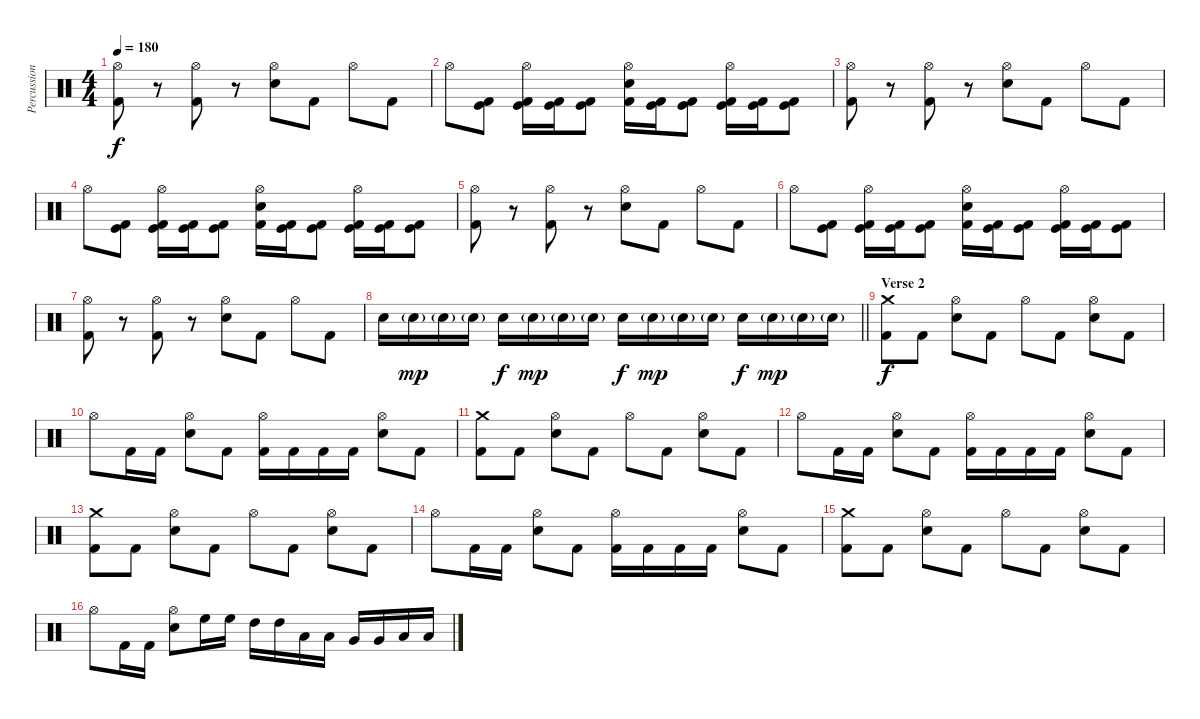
\track ("Percussion" "Percussion") {instrument percussion}
\staff {score}
\articulation defaults
\ts (4 4)
\tempo 180
\clef neutral
\ks c
("Hi-Hat (open)" "Kick (hit) 2").8{dy f} r.8 ("Hi-Hat (open)" "Kick (hit) 2").8 r.8 ("Hi-Hat (open)" "Electric Snare (hit)").8 "Kick (hit) 2".8 "Hi-Hat (open)".8 "Kick (hit) 2".8 |
"Hi-Hat (open)".8 ("Kick (hit)" "Kick (hit) 2").8 ("Hi-Hat (open)" "Kick (hit)" "Kick (hit) 2").16 ("Kick (hit)" "Kick (hit) 2").16 ("Kick (hit)" "Kick (hit) 2").8 ("Hi-Hat (open)" "Electric Snare (hit)" "Kick (hit) 2").16 ("Kick (hit)" "Kick (hit) 2").16 ("Kick (hit)" "Kick (hit) 2").8 ("Hi-Hat (open)" "Kick (hit)" "Kick (hit) 2").16 ("Kick (hit)" "Kick (hit) 2").16 ("Kick (hit)" "Kick (hit) 2").8 |
("Hi-Hat (open)" "Kick (hit) 2").8 r.8 ("Hi-Hat (open)" "Kick (hit) 2").8 r.8 ("Hi-Hat (open)" "Electric Snare (hit)").8 "Kick (hit) 2".8 "Hi-Hat (open)".8 "Kick (hit) 2".8 |
"Hi-Hat (open)".8 ("Kick (hit)" "Kick (hit) 2").8 ("Hi-Hat (open)" "Kick (hit)" "Kick (hit) 2").16 ("Kick (hit)" "Kick (hit) 2").16 ("Kick (hit)" "Kick (hit) 2").8 ("Hi-Hat (open)" "Electric Snare (hit)" "Kick (hit) 2").16 ("Kick (hit)" "Kick (hit) 2").16 ("Kick (hit)" "Kick (hit) 2").8 ("Hi-Hat (open)" "Kick (hit)" "Kick (hit) 2").16 ("Kick (hit)" "Kick (hit) 2").16 ("Kick (hit)" "Kick (hit) 2").8 |
("Hi-Hat (open)" "Kick (hit) 2").8 r.8 ("Hi-Hat (open)" "Kick (hit) 2").8 r.8 ("Hi-Hat (open)" "Electric Snare (hit)").8 "Kick (hit) 2".8 "Hi-Hat (open)".8 "Kick (hit) 2".8 |
"Hi-Hat (open)".8 ("Kick (hit)" "Kick (hit) 2").8 ("Hi-Hat (open)" "Kick (hit)" "Kick (hit) 2").16 ("Kick (hit)" "Kick (hit) 2").16 ("Kick (hit)" "Kick (hit) 2").8 ("Hi-Hat (open)" "Electric Snare (hit)" "Kick (hit) 2").16 ("Kick (hit)" "Kick (hit) 2").16 ("Kick (hit)" "Kick (hit) 2").8 ("Hi-Hat (open)" "Kick (hit)" "Kick (hit) 2").16 ("Kick (hit)" "Kick (hit) 2").16 ("Kick (hit)" "Kick (hit) 2").8 |
("Hi-Hat (open)" "Kick (hit) 2").8 r.8 ("Hi-Hat (open)" "Kick (hit) 2").8 r.8 ("Hi-Hat (open)" "Electric Snare (hit)").8 "Kick (hit) 2".8 "Hi-Hat (open)".8 "Kick (hit) 2".8 |
\barLineRight lightlight "Electric Snare (hit)".16 "Electric Snare (hit)"{g}.16{dy mp} "Electric Snare (hit)"{g}.16 "Electric Snare (hit)"{g}.16 "Electric Snare (hit)".16{dy f} "Electric Snare (hit)"{g}.16{dy mp} "Electric Snare (hit)"{g}.16 "Electric Snare (hit)"{g}.16 "Electric Snare (hit)".16{dy f} "Electric Snare (hit)"{g}.16{dy mp} "Electric Snare (hit)"{g}.16 "Electric Snare (hit)"{g}.16 "Electric Snare (hit)".16{dy f} "Electric Snare (hit)"{g}.16{dy mp} "Electric Snare (hit)"{g}.16 "Electric Snare (hit)"{g}.16
|
\section ("" "Verse 2")
("Crash medium (hit)" "Kick (hit) 2").8{dy f} "Kick (hit) 2".8 ("Hi-Hat (open)" "Electric Snare (hit)").8 "Kick (hit) 2".8 "Hi-Hat (open)".8 "Kick (hit) 2".8 ("Hi-Hat (open)" "Electric Snare (hit)").8 "Kick (hit) 2".8 |
"Hi-Hat (open)".8 "Kick (hit) 2".16 "Kick (hit) 2".16 ("Hi-Hat (open)" "Electric Snare (hit)").8 "Kick (hit) 2".8 ("Hi-Hat (open)" "Kick (hit) 2").16 "Kick (hit) 2".16 "Kick (hit) 2".16 "Kick (hit) 2".16 ("Hi-Hat (open)" "Electric Snare (hit)").8 "Kick (hit) 2".8 |
("Crash medium (hit)" "Kick (hit) 2").8 "Kick (hit) 2".8 ("Hi-Hat (open)" "Electric Snare (hit)").8 "Kick (hit) 2".8 "Hi-Hat (open)".8 "Kick (hit) 2".8 ("Hi-Hat (open)" "Electric Snare (hit)").8 "Kick (hit) 2".8 |
"Hi-Hat (open)".8 "Kick (hit) 2".16 "Kick (hit) 2".16 ("Hi-Hat (open)" "Electric Snare (hit)").8 "Kick (hit) 2".8 ("Hi-Hat (open)" "Kick (hit) 2").16 "Kick (hit) 2".16 "Kick (hit) 2".16 "Kick (hit) 2".16 ("Hi-Hat (open)" "Electric Snare (hit)").8 "Kick (hit) 2".8 |
("Crash medium (hit)" "Kick (hit) 2").8 "Kick (hit) 2".8 ("Hi-Hat (open)" "Electric Snare (hit)").8 "Kick (hit) 2".8 "Hi-Hat (open)".8 "Kick (hit) 2".8 ("Hi-Hat (open)" "Electric Snare (hit)").8 "Kick (hit) 2".8 |
"Hi-Hat (open)".8 "Kick (hit) 2".16 "Kick (hit) 2".16 ("Hi-Hat (open)" "Electric Snare (hit)").8 "Kick (hit) 2".8 ("Hi-Hat (open)" "Kick (hit) 2").16 "Kick (hit) 2".16 "Kick (hit) 2".16 "Kick (hit) 2".16 ("Hi-Hat (open)" "Electric Snare (hit)").8 "Kick (hit) 2".8 |
("Crash medium (hit)" "Kick (hit) 2").8 "Kick (hit) 2".8 ("Hi-Hat (open)" "Electric Snare (hit)").8 "Kick (hit) 2".8 "Hi-Hat (open)".8 "Kick (hit) 2".8 ("Hi-Hat (open)" "Electric Snare (hit)").8 "Kick (hit) 2".8 |
"Hi-Hat (open)".8 "Kick (hit) 2".16 "Kick (hit) 2".16 ("Hi-Hat (open)" "Electric Snare (hit)").8 "High Floor Tom (hit)".16 "High Floor Tom (hit)".16 "High Tom (hit)".16 "High Tom (hit)".16 "Low Tom (hit)".16 "Low Tom (hit)".16 "Very Low Tom (hit)".16 "Very Low Tom (hit)".16 "Low Floor Tom (hit)".16 "Low Floor Tom (hit)".16
